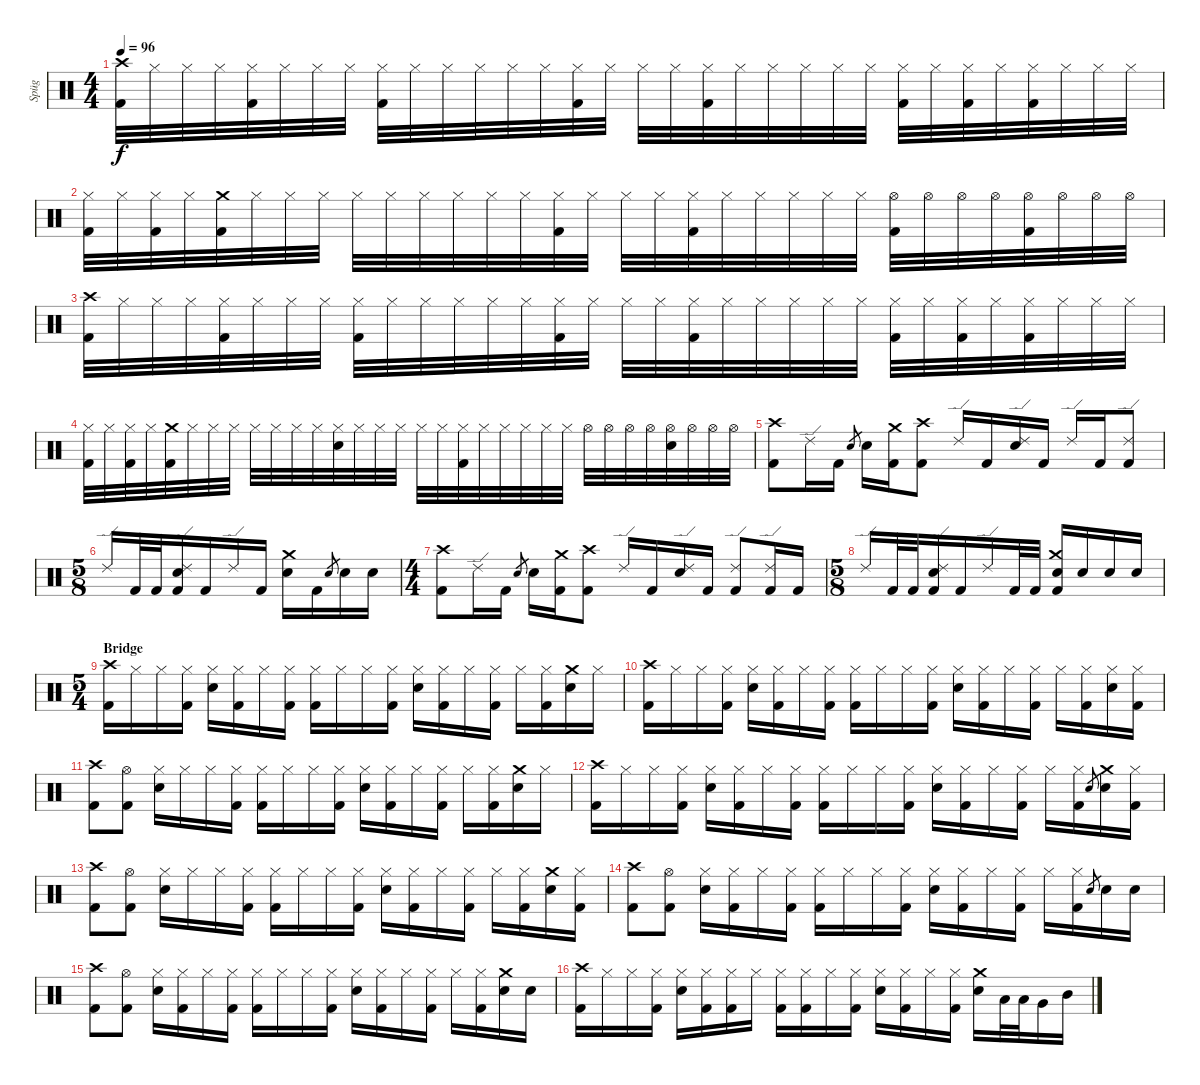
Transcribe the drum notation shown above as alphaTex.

\track ("Spüg" "Spüg") {instrument percussion}
\staff {score}
\articulation defaults
\ts (4 4)
\tempo 96
\clef neutral
\ks c
("Crash high (hit)" "Kick (hit) 2").32{dy f} "Hi-Hat (closed)".32 "Hi-Hat (closed)".32 "Hi-Hat (closed)".32 ("Hi-Hat (closed)" "Kick (hit) 2").32 "Hi-Hat (closed)".32 "Hi-Hat (closed)".32 "Hi-Hat (closed)".32 ("Hi-Hat (closed)" "Kick (hit) 2").32 "Hi-Hat (closed)".32 "Hi-Hat (closed)".32 "Hi-Hat (closed)".32 "Hi-Hat (closed)".32 "Hi-Hat (closed)".32 ("Hi-Hat (closed)" "Kick (hit) 2").32 "Hi-Hat (closed)".32 "Hi-Hat (closed)".32 "Hi-Hat (closed)".32 ("Hi-Hat (closed)" "Kick (hit) 2").32 "Hi-Hat (closed)".32 "Hi-Hat (closed)".32 "Hi-Hat (closed)".32 "Hi-Hat (closed)".32 "Hi-Hat (closed)".32 ("Hi-Hat (closed)" "Kick (hit) 2").32 "Hi-Hat (closed)".32 ("Hi-Hat (closed)" "Kick (hit) 2").32 "Hi-Hat (closed)".32 ("Hi-Hat (closed)" "Kick (hit) 2").32 "Hi-Hat (closed)".32 "Hi-Hat (closed)".32 "Hi-Hat (closed)".32 |
("Hi-Hat (closed)" "Kick (hit) 2").32 "Hi-Hat (closed)".32 ("Hi-Hat (closed)" "Kick (hit) 2").32 "Hi-Hat (closed)".32 ("Crash medium (hit)" "Kick (hit) 2").32 "Hi-Hat (closed)".32 "Hi-Hat (closed)".32 "Hi-Hat (closed)".32 "Hi-Hat (closed)".32 "Hi-Hat (closed)".32 "Hi-Hat (closed)".32 "Hi-Hat (closed)".32 "Hi-Hat (closed)".32 "Hi-Hat (closed)".32 ("Hi-Hat (closed)" "Kick (hit) 2").32 "Hi-Hat (closed)".32 "Hi-Hat (closed)".32 "Hi-Hat (closed)".32 ("Hi-Hat (closed)" "Kick (hit) 2").32 "Hi-Hat (closed)".32 "Hi-Hat (closed)".32 "Hi-Hat (closed)".32 "Hi-Hat (closed)".32 "Hi-Hat (closed)".32 ("Hi-Hat (open)" "Kick (hit) 2").32 "Hi-Hat (open)".32 "Hi-Hat (open)".32 "Hi-Hat (open)".32 ("Hi-Hat (open)" "Kick (hit) 2").32 "Hi-Hat (open)".32 "Hi-Hat (open)".32 "Hi-Hat (open)".32 |
("Crash high (hit)" "Kick (hit) 2").32 "Hi-Hat (closed)".32 "Hi-Hat (closed)".32 "Hi-Hat (closed)".32 ("Hi-Hat (closed)" "Kick (hit) 2").32 "Hi-Hat (closed)".32 "Hi-Hat (closed)".32 "Hi-Hat (closed)".32 ("Hi-Hat (closed)" "Kick (hit) 2").32 "Hi-Hat (closed)".32 "Hi-Hat (closed)".32 "Hi-Hat (closed)".32 "Hi-Hat (closed)".32 "Hi-Hat (closed)".32 ("Hi-Hat (closed)" "Kick (hit) 2").32 "Hi-Hat (closed)".32 "Hi-Hat (closed)".32 "Hi-Hat (closed)".32 ("Hi-Hat (closed)" "Kick (hit) 2").32 "Hi-Hat (closed)".32 "Hi-Hat (closed)".32 "Hi-Hat (closed)".32 "Hi-Hat (closed)".32 "Hi-Hat (closed)".32 ("Hi-Hat (closed)" "Kick (hit) 2").32 "Hi-Hat (closed)".32 ("Hi-Hat (closed)" "Kick (hit) 2").32 "Hi-Hat (closed)".32 ("Hi-Hat (closed)" "Kick (hit) 2").32 "Hi-Hat (closed)".32 "Hi-Hat (closed)".32 "Hi-Hat (closed)".32 |
("Hi-Hat (closed)" "Kick (hit) 2").32 "Hi-Hat (closed)".32 ("Hi-Hat (closed)" "Kick (hit) 2").32 "Hi-Hat (closed)".32 ("Crash medium (hit)" "Kick (hit) 2").32 "Hi-Hat (closed)".32 "Hi-Hat (closed)".32 "Hi-Hat (closed)".32 "Hi-Hat (closed)".32 "Hi-Hat (closed)".32 "Hi-Hat (closed)".32 "Hi-Hat (closed)".32 ("Hi-Hat (closed)" "Electric Snare (hit)").32 "Hi-Hat (closed)".32 "Hi-Hat (closed)".32 "Hi-Hat (closed)".32 "Hi-Hat (closed)".32 "Hi-Hat (closed)".32 ("Hi-Hat (closed)" "Kick (hit) 2").32 "Hi-Hat (closed)".32 "Hi-Hat (closed)".32 "Hi-Hat (closed)".32 "Hi-Hat (closed)".32 "Hi-Hat (closed)".32 "Hi-Hat (open)".32 "Hi-Hat (open)".32 "Hi-Hat (open)".32 "Hi-Hat (open)".32 ("Hi-Hat (open)" "Electric Snare (hit)").32 "Hi-Hat (open)".32 "Hi-Hat (open)".32 "Hi-Hat (open)".32 |
("Crash high (hit)" "Kick (hit) 2").8 "Ride (edge) 2".16 "Kick (hit) 2".16 "Electric Snare (hit)".8{gr} "Electric Snare (hit)".16 ("Crash medium (hit)" "Kick (hit) 2").16 ("Crash high (hit)" "Kick (hit) 2").8 "Ride (edge) 2".16 "Kick (hit) 2".16 ("Ride (edge) 2" "Electric Snare (hit)").16 "Kick (hit) 2".16 "Ride (edge) 2".16 "Kick (hit) 2".16 ("Ride (edge) 2" "Kick (hit) 2").8 |
\ts (5 8)
"Ride (edge) 2".16 "Kick (hit) 2".32 "Kick (hit) 2".32 ("Ride (edge) 2" "Electric Snare (hit)" "Kick (hit) 2").16 "Kick (hit) 2".16 "Ride (edge) 2".16 "Kick (hit) 2".16 ("Crash medium (hit)" "Electric Snare (hit)").16 "Kick (hit) 2".16 "Electric Snare (hit)".8{gr} "Electric Snare (hit)".16 "Electric Snare (hit)".16 |
\ts (4 4)
("Crash high (hit)" "Kick (hit) 2").8 "Ride (edge) 2".16 "Kick (hit) 2".16 "Electric Snare (hit)".8{gr} "Electric Snare (hit)".16 ("Crash medium (hit)" "Kick (hit) 2").16 ("Crash high (hit)" "Kick (hit) 2").8 "Ride (edge) 2".16 "Kick (hit) 2".16 ("Ride (edge) 2" "Electric Snare (hit)").16 "Kick (hit) 2".16 ("Ride (edge) 2" "Kick (hit) 2").8 ("Ride (edge) 2" "Kick (hit) 2").16 "Kick (hit) 2".16 |
\ts (5 8)
"Ride (edge) 2".16 "Kick (hit) 2".32 "Kick (hit) 2".32 ("Ride (edge) 2" "Electric Snare (hit)" "Kick (hit) 2").16 "Kick (hit) 2".16 "Ride (edge) 2".16 "Kick (hit) 2".32 "Kick (hit) 2".32 ("Crash medium (hit)" "Electric Snare (hit)" "Kick (hit) 2").16 "Electric Snare (hit)".16 "Electric Snare (hit)".16 "Electric Snare (hit)".16 |
\ts (5 4)
\section ("" "Bridge")
("Crash high (hit)" "Kick (hit) 2").16 "Hi-Hat (closed)".16 "Hi-Hat (closed)".16 ("Hi-Hat (closed)" "Kick (hit) 2").16 ("Hi-Hat (closed)" "Electric Snare (hit)").16 ("Hi-Hat (closed)" "Kick (hit) 2").16 "Hi-Hat (closed)".16 ("Hi-Hat (closed)" "Kick (hit) 2").16 ("Hi-Hat (closed)" "Kick (hit) 2").16 "Hi-Hat (closed)".16 "Hi-Hat (closed)".16 ("Hi-Hat (closed)" "Kick (hit) 2").16 ("Hi-Hat (closed)" "Electric Snare (hit)").16 ("Hi-Hat (closed)" "Kick (hit) 2").16 "Hi-Hat (closed)".16 ("Hi-Hat (closed)" "Kick (hit) 2").16 "Hi-Hat (closed)".16 ("Hi-Hat (closed)" "Kick (hit) 2").16 ("Crash medium (hit)" "Electric Snare (hit)").16 "Hi-Hat (closed)".16 |
("Crash high (hit)" "Kick (hit) 2").16 "Hi-Hat (closed)".16 "Hi-Hat (closed)".16 ("Hi-Hat (closed)" "Kick (hit) 2").16 ("Hi-Hat (closed)" "Electric Snare (hit)").16 ("Hi-Hat (closed)" "Kick (hit) 2").16 "Hi-Hat (closed)".16 ("Hi-Hat (closed)" "Kick (hit) 2").16 ("Hi-Hat (closed)" "Kick (hit) 2").16 "Hi-Hat (closed)".16 "Hi-Hat (closed)".16 ("Hi-Hat (closed)" "Kick (hit) 2").16 ("Hi-Hat (closed)" "Electric Snare (hit)").16 ("Hi-Hat (closed)" "Kick (hit) 2").16 "Hi-Hat (closed)".16 ("Hi-Hat (closed)" "Kick (hit) 2").16 "Hi-Hat (closed)".16 ("Hi-Hat (closed)" "Kick (hit) 2").16 ("Hi-Hat (closed)" "Electric Snare (hit)").16 ("Hi-Hat (closed)" "Kick (hit) 2").16 |
("Crash high (hit)" "Kick (hit) 2").8 ("Hi-Hat (open)" "Kick (hit) 2").8 ("Hi-Hat (closed)" "Electric Snare (hit)").16 "Hi-Hat (closed)".16 "Hi-Hat (closed)".16 ("Hi-Hat (closed)" "Kick (hit) 2").16 ("Hi-Hat (closed)" "Kick (hit) 2").16 "Hi-Hat (closed)".16 "Hi-Hat (closed)".16 ("Hi-Hat (closed)" "Kick (hit) 2").16 ("Hi-Hat (closed)" "Electric Snare (hit)").16 ("Hi-Hat (closed)" "Kick (hit) 2").16 "Hi-Hat (closed)".16 ("Hi-Hat (closed)" "Kick (hit) 2").16 "Hi-Hat (closed)".16 ("Hi-Hat (closed)" "Kick (hit) 2").16 ("Crash medium (hit)" "Electric Snare (hit)").16 "Hi-Hat (closed)".16 |
("Crash high (hit)" "Kick (hit) 2").16 "Hi-Hat (closed)".16 "Hi-Hat (closed)".16 ("Hi-Hat (closed)" "Kick (hit) 2").16 ("Hi-Hat (closed)" "Electric Snare (hit)").16 ("Hi-Hat (closed)" "Kick (hit) 2").16 "Hi-Hat (closed)".16 ("Hi-Hat (closed)" "Kick (hit) 2").16 ("Hi-Hat (closed)" "Kick (hit) 2").16 "Hi-Hat (closed)".16 "Hi-Hat (closed)".16 ("Hi-Hat (closed)" "Kick (hit) 2").16 ("Hi-Hat (closed)" "Electric Snare (hit)").16 ("Hi-Hat (closed)" "Kick (hit) 2").16 "Hi-Hat (closed)".16 ("Hi-Hat (closed)" "Kick (hit) 2").16 "Hi-Hat (closed)".16 ("Hi-Hat (closed)" "Kick (hit) 2").16 "Electric Snare (hit)".8{gr} ("Crash medium (hit)" "Electric Snare (hit)").16 ("Hi-Hat (closed)" "Kick (hit) 2").16 |
("Crash high (hit)" "Kick (hit) 2").8 ("Hi-Hat (open)" "Kick (hit) 2").8 ("Hi-Hat (closed)" "Electric Snare (hit)").16 "Hi-Hat (closed)".16 "Hi-Hat (closed)".16 ("Hi-Hat (closed)" "Kick (hit) 2").16 ("Hi-Hat (closed)" "Kick (hit) 2").16 "Hi-Hat (closed)".16 "Hi-Hat (closed)".16 ("Hi-Hat (closed)" "Kick (hit) 2").16 ("Hi-Hat (closed)" "Electric Snare (hit)").16 ("Hi-Hat (closed)" "Kick (hit) 2").16 "Hi-Hat (closed)".16 ("Hi-Hat (closed)" "Kick (hit) 2").16 "Hi-Hat (closed)".16 ("Hi-Hat (closed)" "Kick (hit) 2").16 ("Crash medium (hit)" "Electric Snare (hit)").16 ("Hi-Hat (closed)" "Kick (hit) 2").16 |
("Crash high (hit)" "Kick (hit) 2").8 ("Hi-Hat (open)" "Kick (hit) 2").8 ("Hi-Hat (closed)" "Electric Snare (hit)").16 ("Hi-Hat (closed)" "Kick (hit) 2").16 "Hi-Hat (closed)".16 ("Hi-Hat (closed)" "Kick (hit) 2").16 ("Hi-Hat (closed)" "Kick (hit) 2").16 "Hi-Hat (closed)".16 "Hi-Hat (closed)".16 ("Hi-Hat (closed)" "Kick (hit) 2").16 ("Hi-Hat (closed)" "Electric Snare (hit)").16 ("Hi-Hat (closed)" "Kick (hit) 2").16 "Hi-Hat (closed)".16 ("Hi-Hat (closed)" "Kick (hit) 2").16 "Hi-Hat (closed)".16 ("Hi-Hat (closed)" "Kick (hit) 2").16 "Electric Snare (hit)".8{gr} "Electric Snare (hit)".16 "Electric Snare (hit)".16 |
("Crash high (hit)" "Kick (hit) 2").8 ("Hi-Hat (open)" "Kick (hit) 2").8 ("Hi-Hat (closed)" "Electric Snare (hit)").16 ("Hi-Hat (closed)" "Kick (hit) 2").16 "Hi-Hat (closed)".16 ("Hi-Hat (closed)" "Kick (hit) 2").16 ("Hi-Hat (closed)" "Kick (hit) 2").16 "Hi-Hat (closed)".16 "Hi-Hat (closed)".16 ("Hi-Hat (closed)" "Kick (hit) 2").16 ("Hi-Hat (closed)" "Electric Snare (hit)").16 ("Hi-Hat (closed)" "Kick (hit) 2").16 "Hi-Hat (closed)".16 ("Hi-Hat (closed)" "Kick (hit) 2").16 "Hi-Hat (closed)".16 ("Hi-Hat (closed)" "Kick (hit) 2").16 ("Crash medium (hit)" "Electric Snare (hit)").16 "Electric Snare (hit)".16 |
("Crash high (hit)" "Kick (hit) 2").16 "Hi-Hat (closed)".16 "Hi-Hat (closed)".16 ("Hi-Hat (closed)" "Kick (hit) 2").16 ("Hi-Hat (closed)" "Electric Snare (hit)").16 ("Hi-Hat (closed)" "Kick (hit) 2").16 ("Hi-Hat (closed)" "Kick (hit) 2").16 "Hi-Hat (closed)".16 ("Hi-Hat (closed)" "Kick (hit) 2").16 ("Hi-Hat (closed)" "Kick (hit) 2").16 "Hi-Hat (closed)".16 ("Hi-Hat (closed)" "Kick (hit) 2").16 ("Hi-Hat (closed)" "Electric Snare (hit)").16 ("Hi-Hat (closed)" "Kick (hit) 2").16 "Hi-Hat (closed)".16 ("Hi-Hat (closed)" "Kick (hit) 2").16 ("Crash medium (hit)" "Electric Snare (hit)").16 "Low Tom (hit)".32 "Low Tom (hit)".32 "Very Low Tom (hit)".16 "Mid Tom (hit)".16
